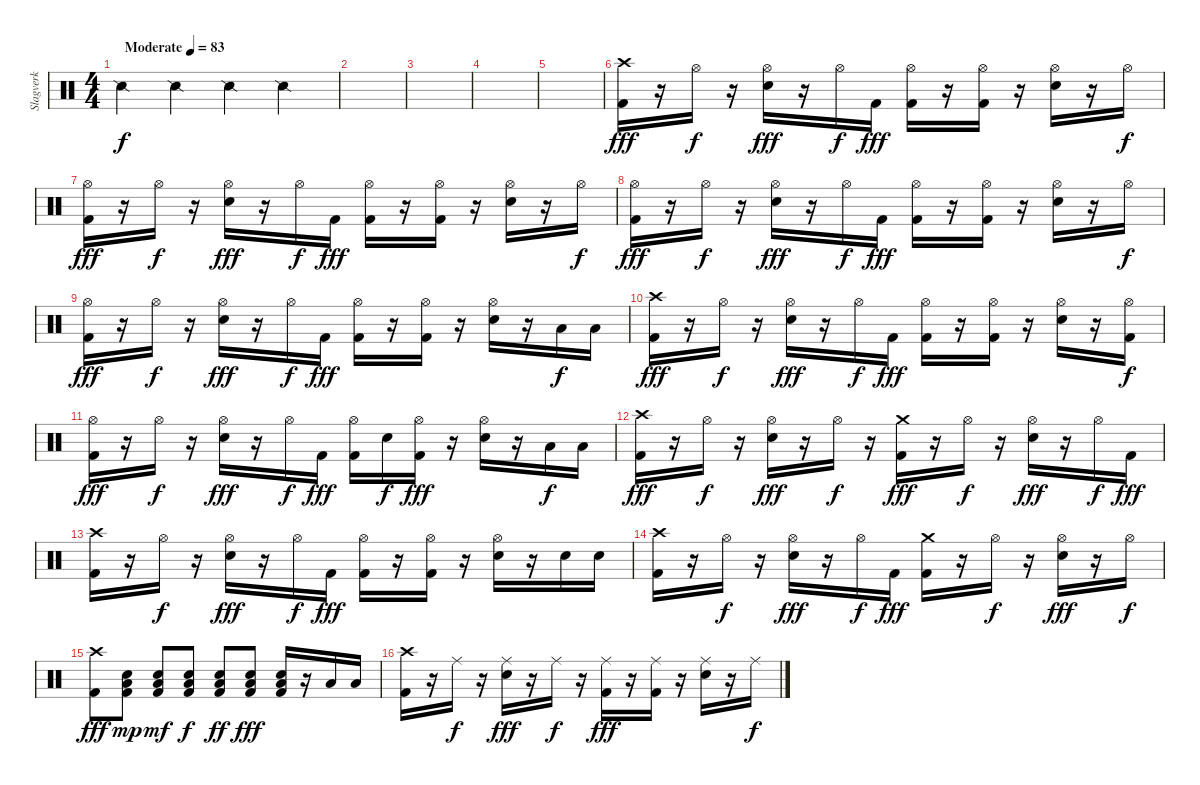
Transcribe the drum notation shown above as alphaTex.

\track ("Slagverk" "Slagverk") {instrument percussion}
\staff {score}
\articulation defaults
\ts (4 4)
\tempo (83 "Moderate")
\clef neutral
\ks c "Snare (side stick) 2".4{dy f} "Snare (side stick) 2".4 "Snare (side stick) 2".4 "Snare (side stick) 2".4
|
|
|
|
|
("Crash high (hit)" "Kick (hit) 2").16{dy fff} r.16 "Hi-Hat (open)".16{dy f} r.16 ("Hi-Hat (open)" "Electric Snare (hit)").16{dy fff} r.16 "Hi-Hat (open)".16{dy f} "Kick (hit) 2".16{dy fff} ("Hi-Hat (open)" "Kick (hit) 2").16 r.16 ("Hi-Hat (open)" "Kick (hit) 2").16 r.16 ("Hi-Hat (open)" "Electric Snare (hit)").16 r.16 "Hi-Hat (open)".16{dy f} |
("Hi-Hat (open)" "Kick (hit) 2").16{dy fff} r.16 "Hi-Hat (open)".16{dy f} r.16 ("Hi-Hat (open)" "Electric Snare (hit)").16{dy fff} r.16 "Hi-Hat (open)".16{dy f} "Kick (hit) 2".16{dy fff} ("Hi-Hat (open)" "Kick (hit) 2").16 r.16 ("Hi-Hat (open)" "Kick (hit) 2").16 r.16 ("Hi-Hat (open)" "Electric Snare (hit)").16 r.16 "Hi-Hat (open)".16{dy f} |
("Hi-Hat (open)" "Kick (hit) 2").16{dy fff} r.16 "Hi-Hat (open)".16{dy f} r.16 ("Hi-Hat (open)" "Electric Snare (hit)").16{dy fff} r.16 "Hi-Hat (open)".16{dy f} "Kick (hit) 2".16{dy fff} ("Hi-Hat (open)" "Kick (hit) 2").16 r.16 ("Hi-Hat (open)" "Kick (hit) 2").16 r.16 ("Hi-Hat (open)" "Electric Snare (hit)").16 r.16 "Hi-Hat (open)".16{dy f} |
("Hi-Hat (open)" "Kick (hit) 2").16{dy fff} r.16 "Hi-Hat (open)".16{dy f} r.16 ("Hi-Hat (open)" "Electric Snare (hit)").16{dy fff} r.16 "Hi-Hat (open)".16{dy f} "Kick (hit) 2".16{dy fff} ("Hi-Hat (open)" "Kick (hit) 2").16 r.16 ("Hi-Hat (open)" "Kick (hit) 2").16 r.16 ("Hi-Hat (open)" "Electric Snare (hit)").16 r.16 "Low Tom (hit)".16{dy f} "Low Tom (hit)".16 |
("Crash high (hit)" "Kick (hit) 2").16{dy fff} r.16 "Hi-Hat (open)".16{dy f} r.16 ("Hi-Hat (open)" "Electric Snare (hit)").16{dy fff} r.16 "Hi-Hat (open)".16{dy f} "Kick (hit) 2".16{dy fff} ("Hi-Hat (open)" "Kick (hit) 2").16 r.16 ("Hi-Hat (open)" "Kick (hit) 2").16 r.16 ("Hi-Hat (open)" "Electric Snare (hit)").16 r.16 ("Hi-Hat (open)" "Kick (hit) 2").16{dy f} |
("Hi-Hat (open)" "Kick (hit) 2").16{dy fff} r.16 "Hi-Hat (open)".16{dy f} r.16 ("Hi-Hat (open)" "Electric Snare (hit)").16{dy fff} r.16 "Hi-Hat (open)".16{dy f} "Kick (hit) 2".16{dy fff} ("Hi-Hat (open)" "Kick (hit) 2").16 "Electric Snare (hit)".16{dy f} ("Hi-Hat (open)" "Kick (hit) 2").16{dy fff} r.16 ("Hi-Hat (open)" "Electric Snare (hit)").16 r.16 "Low Tom (hit)".16{dy f} "Low Tom (hit)".16 |
("Crash high (hit)" "Kick (hit) 2").16{dy fff} r.16 "Hi-Hat (open)".16{dy f} r.16 ("Hi-Hat (open)" "Electric Snare (hit)").16{dy fff} r.16 "Hi-Hat (open)".16{dy f} r.16 ("Crash medium (hit)" "Kick (hit) 2").16{dy fff} r.16 "Hi-Hat (open)".16{dy f} r.16 ("Hi-Hat (open)" "Electric Snare (hit)").16{dy fff} r.16 "Hi-Hat (open)".16{dy f} "Kick (hit) 2".16{dy fff} |
("Crash high (hit)" "Kick (hit) 2").16 r.16 "Hi-Hat (open)".16{dy f} r.16 ("Hi-Hat (open)" "Electric Snare (hit)").16{dy fff} r.16 "Hi-Hat (open)".16{dy f} "Kick (hit) 2".16{dy fff} ("Hi-Hat (open)" "Kick (hit) 2").16 r.16 ("Hi-Hat (open)" "Kick (hit) 2").16 r.16 ("Hi-Hat (open)" "Electric Snare (hit)").16 r.16 "Electric Snare (hit)".16 "Electric Snare (hit)".16 |
("Crash high (hit)" "Kick (hit) 2").16 r.16 "Hi-Hat (open)".16{dy f} r.16 ("Hi-Hat (open)" "Electric Snare (hit)").16{dy fff} r.16 "Hi-Hat (open)".16{dy f} "Kick (hit) 2".16{dy fff} ("Crash medium (hit)" "Kick (hit) 2").16 r.16 "Hi-Hat (open)".16{dy f} r.16 ("Hi-Hat (open)" "Electric Snare (hit)").16{dy fff} r.16 "Hi-Hat (open)".16{dy f} |
("Crash high (hit)" "Kick (hit) 2").8{dy fff} ("Low Floor Tom (hit)" "Electric Snare (hit)" "Kick (hit) 2").8{dy mp} ("Low Floor Tom (hit)" "Electric Snare (hit)" "Kick (hit) 2").8{dy mf} ("Low Floor Tom (hit)" "Electric Snare (hit)" "Kick (hit) 2").8{dy f} ("Low Floor Tom (hit)" "Electric Snare (hit)" "Kick (hit) 2").8{dy ff} ("Low Floor Tom (hit)" "Electric Snare (hit)" "Kick (hit) 2").8{dy fff} ("Low Floor Tom (hit)" "Electric Snare (hit)" "Kick (hit) 2").16 r.16 "Low Tom (hit)".16 "Low Tom (hit)".16 |
("Crash high (hit)" "Kick (hit) 2").16 r.16 "Ride (middle)".16{dy f} r.16 ("Ride (middle)" "Electric Snare (hit)").16{dy fff} r.16 "Ride (middle)".16{dy f} r.16 ("Ride (middle)" "Kick (hit) 2").16{dy fff} r.16 ("Ride (middle)" "Kick (hit) 2").16 r.16 ("Ride (middle)" "Electric Snare (hit)").16 r.16 "Ride (middle)".16{dy f}
